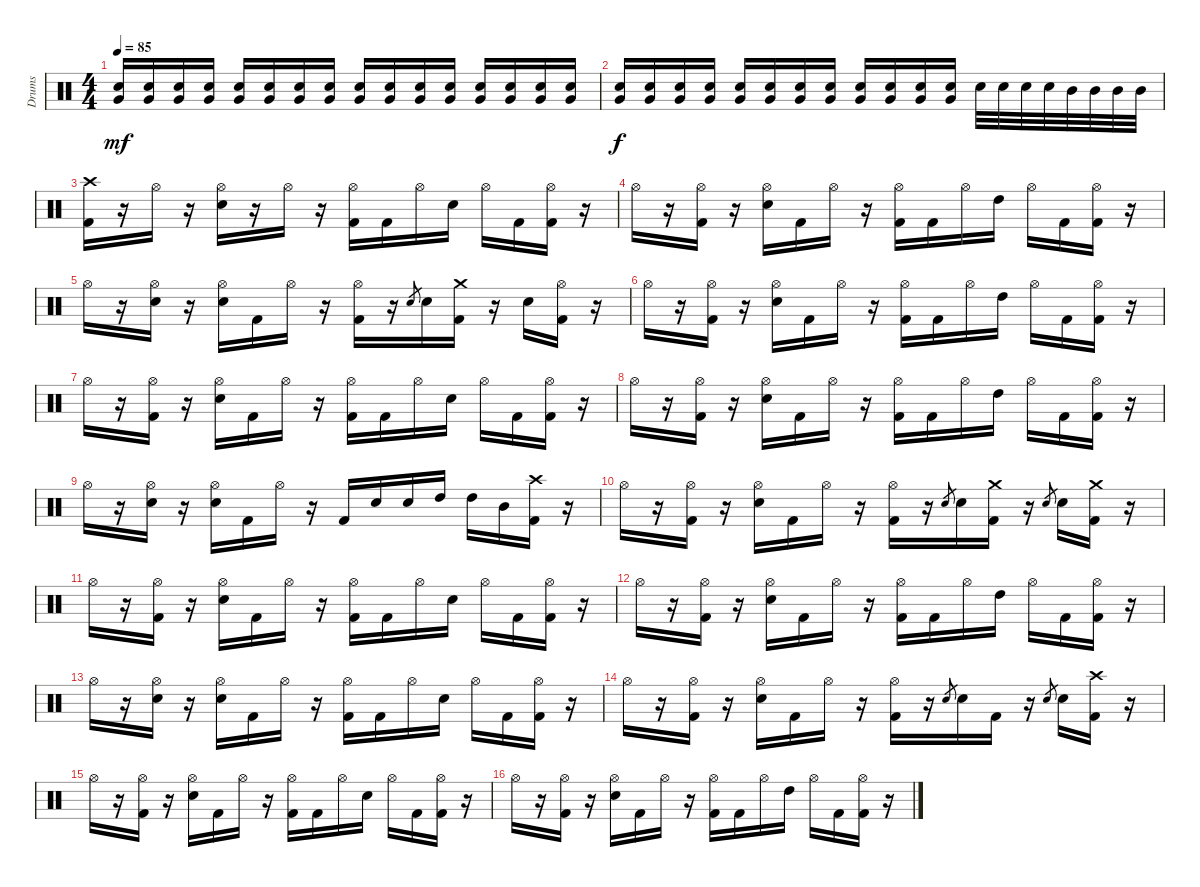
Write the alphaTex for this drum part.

\track ("Drums" "Drums") {instrument percussion}
\staff {score}
\articulation defaults
\ts (4 4)
\tempo 85
\clef neutral
\ks c
("Very Low Tom (hit)" "Electric Snare (hit)").16{dy mf} ("Very Low Tom (hit)" "Electric Snare (hit)").16 ("Very Low Tom (hit)" "Electric Snare (hit)").16 ("Very Low Tom (hit)" "Electric Snare (hit)").16 ("Very Low Tom (hit)" "Electric Snare (hit)").16 ("Very Low Tom (hit)" "Electric Snare (hit)").16 ("Very Low Tom (hit)" "Electric Snare (hit)").16 ("Very Low Tom (hit)" "Electric Snare (hit)").16 ("Very Low Tom (hit)" "Electric Snare (hit)").16 ("Very Low Tom (hit)" "Electric Snare (hit)").16 ("Very Low Tom (hit)" "Electric Snare (hit)").16 ("Very Low Tom (hit)" "Electric Snare (hit)").16 ("Very Low Tom (hit)" "Electric Snare (hit)").16 ("Very Low Tom (hit)" "Electric Snare (hit)").16 ("Very Low Tom (hit)" "Electric Snare (hit)").16 ("Very Low Tom (hit)" "Electric Snare (hit)").16 |
("Very Low Tom (hit)" "Electric Snare (hit)").16{dy f} ("Very Low Tom (hit)" "Electric Snare (hit)").16 ("Very Low Tom (hit)" "Electric Snare (hit)").16 ("Very Low Tom (hit)" "Electric Snare (hit)").16 ("Very Low Tom (hit)" "Electric Snare (hit)").16 ("Very Low Tom (hit)" "Electric Snare (hit)").16 ("Very Low Tom (hit)" "Electric Snare (hit)").16 ("Very Low Tom (hit)" "Electric Snare (hit)").16 ("Very Low Tom (hit)" "Electric Snare (hit)").16 ("Very Low Tom (hit)" "Electric Snare (hit)").16 ("Very Low Tom (hit)" "Electric Snare (hit)").16 ("Very Low Tom (hit)" "Electric Snare (hit)").16 "Electric Snare (hit)".32 "Electric Snare (hit)".32 "Electric Snare (hit)".32 "Electric Snare (hit)".32 "Mid Tom (hit)".32 "Mid Tom (hit)".32 "Mid Tom (hit)".32 "Mid Tom (hit)".32 |
("Crash high (hit)" "Kick (hit) 2").16 r.16 "Hi-Hat (open)".16 r.16 ("Hi-Hat (open)" "Electric Snare (hit)").16 r.16 "Hi-Hat (open)".16 r.16 ("Hi-Hat (open)" "Kick (hit) 2").16 "Kick (hit) 2".16 "Hi-Hat (open)".16 "Electric Snare (hit)".16 "Hi-Hat (open)".16 "Kick (hit) 2".16 ("Hi-Hat (open)" "Kick (hit) 2").16 r.16 |
"Hi-Hat (open)".16 r.16 ("Hi-Hat (open)" "Kick (hit) 2").16 r.16 ("Hi-Hat (open)" "Electric Snare (hit)").16 "Kick (hit) 2".16 "Hi-Hat (open)".16 r.16 ("Hi-Hat (open)" "Kick (hit) 2").16 "Kick (hit) 2".16 "Hi-Hat (open)".16 "High Tom (hit)".16 "Hi-Hat (open)".16 "Kick (hit) 2".16 ("Hi-Hat (open)" "Kick (hit) 2").16 r.16 |
"Hi-Hat (open)".16 r.16 ("Hi-Hat (open)" "Electric Snare (hit)").16 r.16 ("Hi-Hat (open)" "Electric Snare (hit)").16 "Kick (hit) 2".16 "Hi-Hat (open)".16 r.16 ("Hi-Hat (open)" "Kick (hit) 2").16 r.16 "Electric Snare (hit)".8{gr} "Electric Snare (hit)".16 ("Crash medium (hit)" "Kick (hit) 2").16 r.16 "Electric Snare (hit)".16 ("Hi-Hat (open)" "Kick (hit) 2").16 r.16 |
"Hi-Hat (open)".16 r.16 ("Hi-Hat (open)" "Kick (hit) 2").16 r.16 ("Hi-Hat (open)" "Electric Snare (hit)").16 "Kick (hit) 2".16 "Hi-Hat (open)".16 r.16 ("Hi-Hat (open)" "Kick (hit) 2").16 "Kick (hit) 2".16 "Hi-Hat (open)".16 "High Tom (hit)".16 "Hi-Hat (open)".16 "Kick (hit) 2".16 ("Hi-Hat (open)" "Kick (hit) 2").16 r.16 |
"Hi-Hat (open)".16 r.16 ("Hi-Hat (open)" "Kick (hit) 2").16 r.16 ("Hi-Hat (open)" "Electric Snare (hit)").16 "Kick (hit) 2".16 "Hi-Hat (open)".16 r.16 ("Hi-Hat (open)" "Kick (hit) 2").16 "Kick (hit) 2".16 "Hi-Hat (open)".16 "Electric Snare (hit)".16 "Hi-Hat (open)".16 "Kick (hit) 2".16 ("Hi-Hat (open)" "Kick (hit) 2").16 r.16 |
"Hi-Hat (open)".16 r.16 ("Hi-Hat (open)" "Kick (hit) 2").16 r.16 ("Hi-Hat (open)" "Electric Snare (hit)").16 "Kick (hit) 2".16 "Hi-Hat (open)".16 r.16 ("Hi-Hat (open)" "Kick (hit) 2").16 "Kick (hit) 2".16 "Hi-Hat (open)".16 "High Tom (hit)".16 "Hi-Hat (open)".16 "Kick (hit) 2".16 ("Hi-Hat (open)" "Kick (hit) 2").16 r.16 |
"Hi-Hat (open)".16 r.16 ("Hi-Hat (open)" "Electric Snare (hit)").16 r.16 ("Hi-Hat (open)" "Electric Snare (hit)").16 "Kick (hit) 2".16 "Hi-Hat (open)".16 r.16 "Kick (hit) 2".16 "Electric Snare (hit)".16 "Electric Snare (hit)".16 "High Tom (hit)".16 "High Tom (hit)".16 "Mid Tom (hit)".16 ("Crash high (hit)" "Kick (hit) 2").16 r.16 |
"Hi-Hat (open)".16 r.16 ("Hi-Hat (open)" "Kick (hit) 2").16 r.16 ("Hi-Hat (open)" "Electric Snare (hit)").16 "Kick (hit) 2".16 "Hi-Hat (open)".16 r.16 ("Hi-Hat (open)" "Kick (hit) 2").16 r.16 "Electric Snare (hit)".8{gr} "Electric Snare (hit)".16 ("Crash medium (hit)" "Kick (hit) 2").16 r.16 "Electric Snare (hit)".8{gr} "Electric Snare (hit)".16 ("Crash medium (hit)" "Kick (hit) 2").16 r.16 |
"Hi-Hat (open)".16 r.16 ("Hi-Hat (open)" "Kick (hit) 2").16 r.16 ("Hi-Hat (open)" "Electric Snare (hit)").16 "Kick (hit) 2".16 "Hi-Hat (open)".16 r.16 ("Hi-Hat (open)" "Kick (hit) 2").16 "Kick (hit) 2".16 "Hi-Hat (open)".16 "Electric Snare (hit)".16 "Hi-Hat (open)".16 "Kick (hit) 2".16 ("Hi-Hat (open)" "Kick (hit) 2").16 r.16 |
"Hi-Hat (open)".16 r.16 ("Hi-Hat (open)" "Kick (hit) 2").16 r.16 ("Hi-Hat (open)" "Electric Snare (hit)").16 "Kick (hit) 2".16 "Hi-Hat (open)".16 r.16 ("Hi-Hat (open)" "Kick (hit) 2").16 "Kick (hit) 2".16 "Hi-Hat (open)".16 "High Tom (hit)".16 "Hi-Hat (open)".16 "Kick (hit) 2".16 ("Hi-Hat (open)" "Kick (hit) 2").16 r.16 |
"Hi-Hat (open)".16 r.16 ("Hi-Hat (open)" "Electric Snare (hit)").16 r.16 ("Hi-Hat (open)" "Electric Snare (hit)").16 "Kick (hit) 2".16 "Hi-Hat (open)".16 r.16 ("Hi-Hat (open)" "Kick (hit) 2").16 "Kick (hit) 2".16 "Hi-Hat (open)".16 "Electric Snare (hit)".16 "Hi-Hat (open)".16 "Kick (hit) 2".16 ("Hi-Hat (open)" "Kick (hit) 2").16 r.16 |
"Hi-Hat (open)".16 r.16 ("Hi-Hat (open)" "Kick (hit) 2").16 r.16 ("Hi-Hat (open)" "Electric Snare (hit)").16 "Kick (hit) 2".16 "Hi-Hat (open)".16 r.16 ("Hi-Hat (open)" "Kick (hit) 2").16 r.16 "Electric Snare (hit)".8{gr} "Electric Snare (hit)".16 "Kick (hit) 2".16 r.16 "Electric Snare (hit)".8{gr} "Electric Snare (hit)".16 ("Crash high (hit)" "Kick (hit) 2").16 r.16 |
"Hi-Hat (open)".16 r.16 ("Hi-Hat (open)" "Kick (hit) 2").16 r.16 ("Hi-Hat (open)" "Electric Snare (hit)").16 "Kick (hit) 2".16 "Hi-Hat (open)".16 r.16 ("Hi-Hat (open)" "Kick (hit) 2").16 "Kick (hit) 2".16 "Hi-Hat (open)".16 "Electric Snare (hit)".16 "Hi-Hat (open)".16 "Kick (hit) 2".16 ("Hi-Hat (open)" "Kick (hit) 2").16 r.16 |
"Hi-Hat (open)".16 r.16 ("Hi-Hat (open)" "Kick (hit) 2").16 r.16 ("Hi-Hat (open)" "Electric Snare (hit)").16 "Kick (hit) 2".16 "Hi-Hat (open)".16 r.16 ("Hi-Hat (open)" "Kick (hit) 2").16 "Kick (hit) 2".16 "Hi-Hat (open)".16 "High Tom (hit)".16 "Hi-Hat (open)".16 "Kick (hit) 2".16 ("Hi-Hat (open)" "Kick (hit) 2").16 r.16
